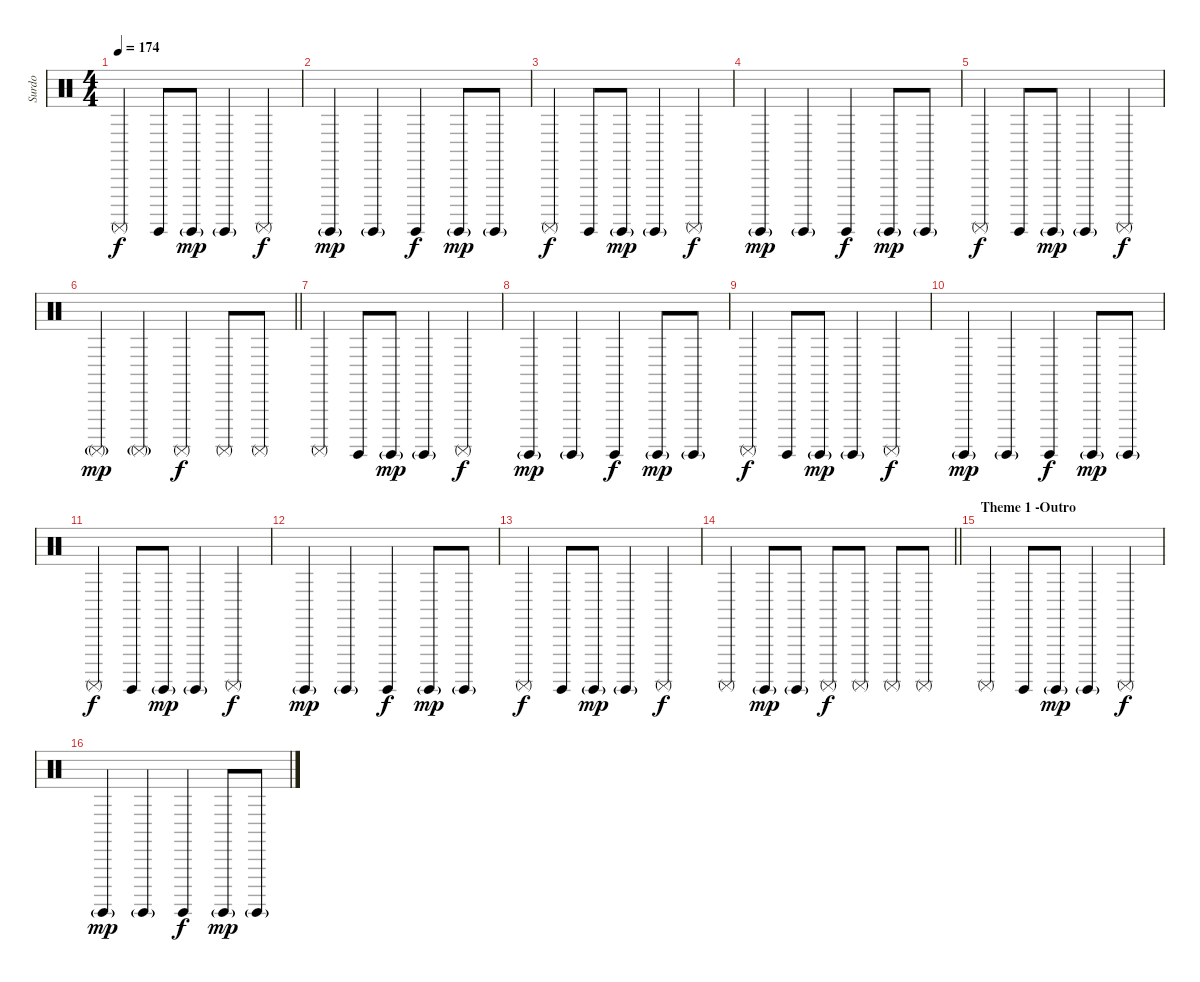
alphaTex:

\track ("Surdo" "Surdo") {instrument percussion}
\staff {score}
\articulation defaults
\ts (4 4)
\tempo 174
\clef neutral
\ks c "Surdo (mute)".4{dy f} "Surdo (hit)".8 "Surdo (hit)"{g}.8{dy mp} "Surdo (hit)"{g}.4 "Surdo (mute)".4{dy f}
|
"Surdo (hit)"{g}.4{dy mp} "Surdo (hit)"{g}.4 "Surdo (hit)".4{dy f} "Surdo (hit)"{g}.8{dy mp} "Surdo (hit)"{g}.8 |
"Surdo (mute)".4{dy f} "Surdo (hit)".8 "Surdo (hit)"{g}.8{dy mp} "Surdo (hit)"{g}.4 "Surdo (mute)".4{dy f} |
"Surdo (hit)"{g}.4{dy mp} "Surdo (hit)"{g}.4 "Surdo (hit)".4{dy f} "Surdo (hit)"{g}.8{dy mp} "Surdo (hit)"{g}.8 |
"Surdo (mute)".4{dy f} "Surdo (hit)".8 "Surdo (hit)"{g}.8{dy mp} "Surdo (hit)"{g}.4 "Surdo (mute)".4{dy f} |
\barLineRight lightlight "Surdo (mute)"{g}.4{dy mp} "Surdo (mute)"{g}.4 "Surdo (mute)".4{dy f} "Surdo (mute)".8 "Surdo (mute)".8
|
"Surdo (mute)".4 "Surdo (hit)".8 "Surdo (hit)"{g}.8{dy mp} "Surdo (hit)"{g}.4 "Surdo (mute)".4{dy f} |
"Surdo (hit)"{g}.4{dy mp} "Surdo (hit)"{g}.4 "Surdo (hit)".4{dy f} "Surdo (hit)"{g}.8{dy mp} "Surdo (hit)"{g}.8 |
"Surdo (mute)".4{dy f} "Surdo (hit)".8 "Surdo (hit)"{g}.8{dy mp} "Surdo (hit)"{g}.4 "Surdo (mute)".4{dy f} |
"Surdo (hit)"{g}.4{dy mp} "Surdo (hit)"{g}.4 "Surdo (hit)".4{dy f} "Surdo (hit)"{g}.8{dy mp} "Surdo (hit)"{g}.8 |
"Surdo (mute)".4{dy f} "Surdo (hit)".8 "Surdo (hit)"{g}.8{dy mp} "Surdo (hit)"{g}.4 "Surdo (mute)".4{dy f} |
"Surdo (hit)"{g}.4{dy mp} "Surdo (hit)"{g}.4 "Surdo (hit)".4{dy f} "Surdo (hit)"{g}.8{dy mp} "Surdo (hit)"{g}.8 |
"Surdo (mute)".4{dy f} "Surdo (hit)".8 "Surdo (hit)"{g}.8{dy mp} "Surdo (hit)"{g}.4 "Surdo (mute)".4{dy f} |
\barLineRight lightlight "Surdo (mute)".4 "Surdo (hit)"{g}.8{dy mp} "Surdo (hit)"{g}.8 "Surdo (mute)".8{dy f} "Surdo (mute)".8 "Surdo (mute)".8 "Surdo (mute)".8
|
\section ("" "Theme 1 -Outro")
"Surdo (mute)".4 "Surdo (hit)".8 "Surdo (hit)"{g}.8{dy mp} "Surdo (hit)"{g}.4 "Surdo (mute)".4{dy f} |
"Surdo (hit)"{g}.4{dy mp} "Surdo (hit)"{g}.4 "Surdo (hit)".4{dy f} "Surdo (hit)"{g}.8{dy mp} "Surdo (hit)"{g}.8
